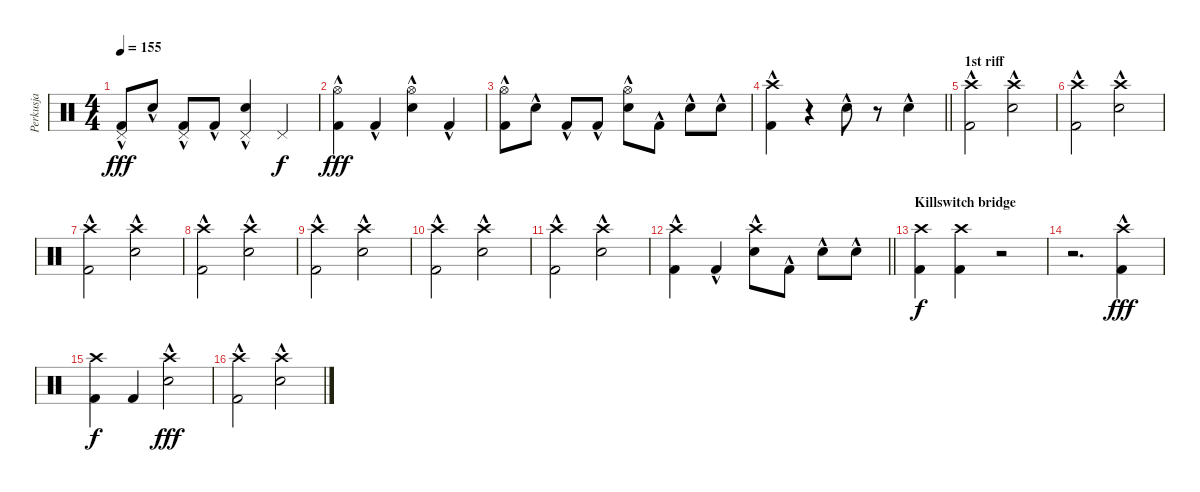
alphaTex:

\track ("Perkusja" "Perkusja") {instrument percussion}
\staff {score}
\articulation defaults
\ts (4 4)
\tempo 155
\clef neutral
\ks c
("Pedal Hi-Hat (hit)" "Kick (hit) 2"{hac}).8{dy fff} "Electric Snare (hit)"{hac}.8 ("Pedal Hi-Hat (hit)" "Kick (hit) 2"{hac}).8 "Kick (hit) 2"{hac}.8 ("Pedal Hi-Hat (hit)" "Electric Snare (hit)"{hac}).4 "Pedal Hi-Hat (hit)".4{dy f} |
("Hi-Hat (open)" "Kick (hit) 2"{hac}).4{dy fff} "Kick (hit) 2"{hac}.4 ("Hi-Hat (open)" "Electric Snare (hit)"{hac}).4 "Kick (hit) 2"{hac}.4 |
("Hi-Hat (open)" "Kick (hit) 2"{hac}).8 "Electric Snare (hit)"{hac}.8 "Kick (hit) 2"{hac}.8 "Kick (hit) 2"{hac}.8 ("Hi-Hat (open)" "Electric Snare (hit)"{hac}).8 "Kick (hit) 2"{hac}.8 "Electric Snare (hit)"{hac}.8 "Electric Snare (hit)"{hac}.8 |
\barLineRight lightlight
("Crash high (hit)" "Kick (hit) 2"{hac}).4 r.4 "Electric Snare (hit)"{hac}.8 r.8 "Electric Snare (hit)"{hac}.4 |
\section ("" "1st riff")
("Crash high (hit)" "Kick (hit) 2"{hac}).2 ("Crash high (hit)" "Electric Snare (hit)"{hac}).2 |
("Crash high (hit)" "Kick (hit) 2"{hac}).2 ("Crash high (hit)" "Electric Snare (hit)"{hac}).2 |
("Crash high (hit)" "Kick (hit) 2"{hac}).2 ("Crash high (hit)" "Electric Snare (hit)"{hac}).2 |
("Crash high (hit)" "Kick (hit) 2"{hac}).2 ("Crash high (hit)" "Electric Snare (hit)"{hac}).2 |
("Crash high (hit)" "Kick (hit) 2"{hac}).2 ("Crash high (hit)" "Electric Snare (hit)"{hac}).2 |
("Crash high (hit)" "Kick (hit) 2"{hac}).2 ("Crash high (hit)" "Electric Snare (hit)"{hac}).2 |
("Crash high (hit)" "Kick (hit) 2"{hac}).2 ("Crash high (hit)" "Electric Snare (hit)"{hac}).2 |
\barLineRight lightlight
("Crash high (hit)" "Kick (hit) 2"{hac}).4 "Kick (hit) 2"{hac}.4 ("Crash high (hit)" "Electric Snare (hit)"{hac}).8 "Kick (hit) 2"{hac}.8 "Electric Snare (hit)"{hac}.8 "Electric Snare (hit)"{hac}.8 |
\section ("" "Killswitch bridge")
("Crash high (hit)" "Kick (hit) 2").4{dy f} ("Crash high (hit)" "Kick (hit) 2").4 r.2 |
r.2{d} ("Crash high (hit)" "Kick (hit) 2"{hac}).4{dy fff} |
("Crash high (hit)" "Kick (hit) 2").4{dy f} "Kick (hit) 2".4 ("Crash high (hit)" "Electric Snare (hit)"{hac}).2{dy fff} |
("Crash high (hit)" "Kick (hit) 2"{hac}).2 ("Crash high (hit)" "Electric Snare (hit)"{hac}).2
